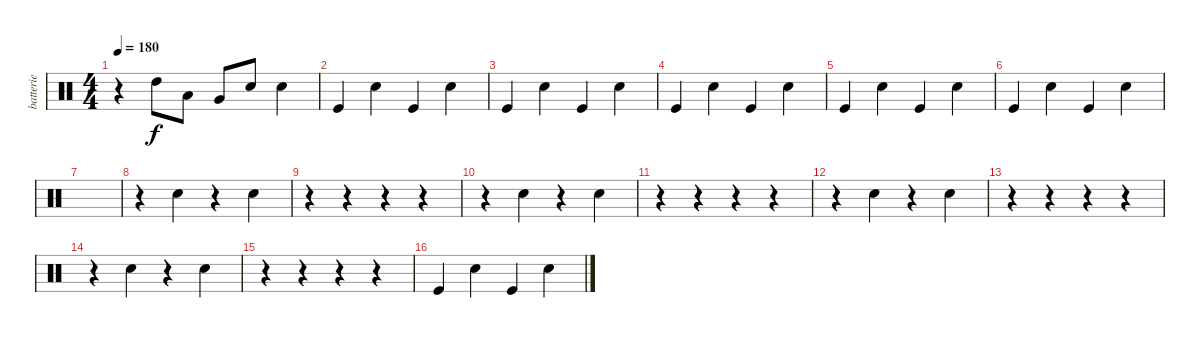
\track ("batterie" "batterie") {instrument percussion}
\staff {score}
\articulation defaults
\ts (4 4)
\tempo 180
\clef neutral
\ks c
r.4{dy f} "High Tom (hit)".8 "Low Tom (hit)".8 "Very Low Tom (hit)".8 "Snare (hit) 2".8 "Snare (hit) 2".4 |
"Kick (hit)".4 "Snare (hit) 2".4 "Kick (hit)".4 "Snare (hit) 2".4 |
"Kick (hit)".4 "Snare (hit) 2".4 "Kick (hit)".4 "Snare (hit) 2".4 |
"Kick (hit)".4 "Snare (hit) 2".4 "Kick (hit)".4 "Snare (hit) 2".4 |
"Kick (hit)".4 "Snare (hit) 2".4 "Kick (hit)".4 "Snare (hit) 2".4 |
"Kick (hit)".4 "Snare (hit) 2".4 "Kick (hit)".4 "Snare (hit) 2".4 |
|
r.4 "Snare (hit) 2".4 r.4 "Snare (hit) 2".4 |
r.4 r.4 r.4 r.4 |
r.4 "Snare (hit) 2".4 r.4 "Snare (hit) 2".4 |
r.4 r.4 r.4 r.4 |
r.4 "Snare (hit) 2".4 r.4 "Snare (hit) 2".4 |
r.4 r.4 r.4 r.4 |
r.4 "Snare (hit) 2".4 r.4 "Snare (hit) 2".4 |
r.4 r.4 r.4 r.4 |
"Kick (hit)".4 "Snare (hit) 2".4 "Kick (hit)".4 "Snare (hit) 2".4
